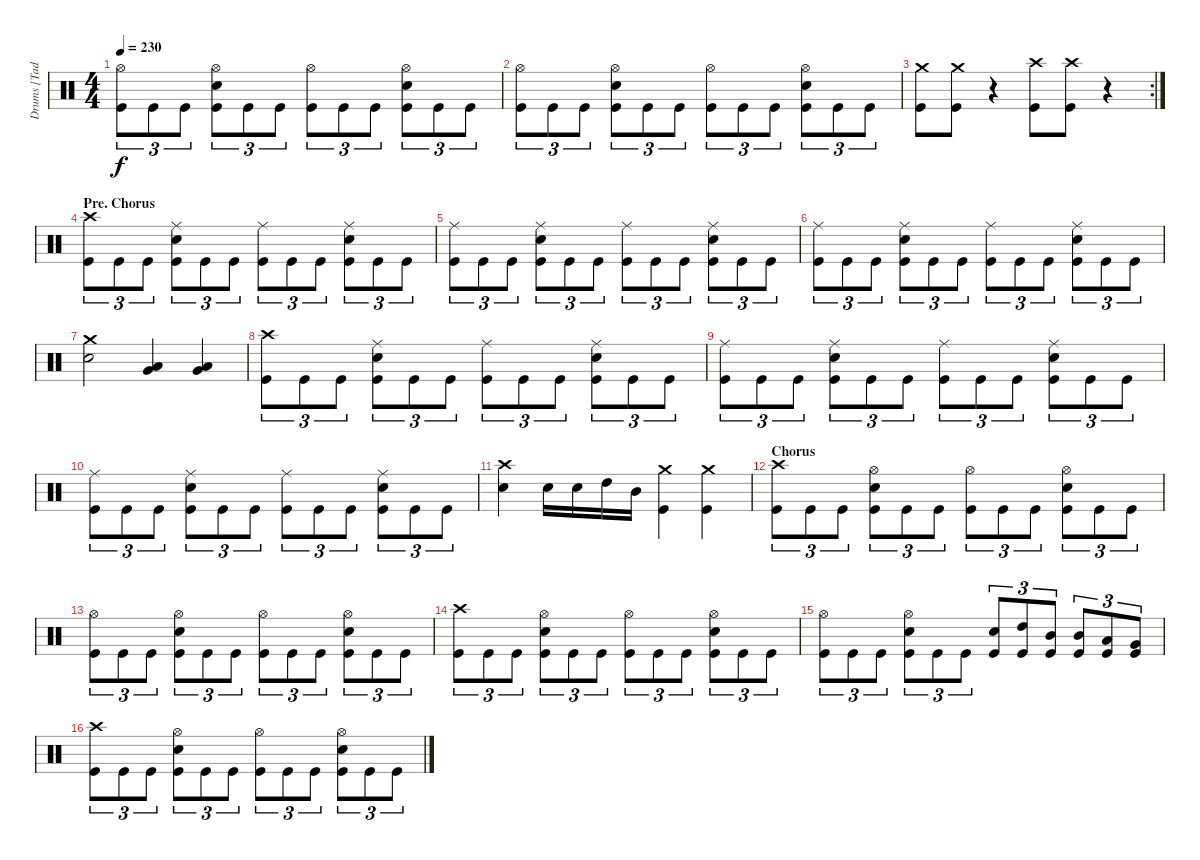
\track ("Drums [Tad Leger]" "Drums [Tad") {instrument percussion}
\staff {score}
\articulation defaults
\ts (4 4)
\tempo 230
\clef neutral
\ks c
("Hi-Hat (open)" "Kick (hit)").8{tu (3 2) dy f} "Kick (hit)".8{tu (3 2)} "Kick (hit)".8{tu (3 2)} ("Hi-Hat (open)" "Electric Snare (hit)" "Kick (hit)").8{tu (3 2)} "Kick (hit)".8{tu (3 2)} "Kick (hit)".8{tu (3 2)} ("Hi-Hat (open)" "Kick (hit)").8{tu (3 2)} "Kick (hit)".8{tu (3 2)} "Kick (hit)".8{tu (3 2)} ("Hi-Hat (open)" "Electric Snare (hit)" "Kick (hit)").8{tu (3 2)} "Kick (hit)".8{tu (3 2)} "Kick (hit)".8{tu (3 2)} |
("Hi-Hat (open)" "Kick (hit)").8{tu (3 2)} "Kick (hit)".8{tu (3 2)} "Kick (hit)".8{tu (3 2)} ("Hi-Hat (open)" "Electric Snare (hit)" "Kick (hit)").8{tu (3 2)} "Kick (hit)".8{tu (3 2)} "Kick (hit)".8{tu (3 2)} ("Hi-Hat (open)" "Kick (hit)").8{tu (3 2)} "Kick (hit)".8{tu (3 2)} "Kick (hit)".8{tu (3 2)} ("Hi-Hat (open)" "Electric Snare (hit)" "Kick (hit)").8{tu (3 2)} "Kick (hit)".8{tu (3 2)} "Kick (hit)".8{tu (3 2)} |
\rc 2
("Crash medium (hit)" "Kick (hit)").8 ("Crash medium (hit)" "Kick (hit)").8 r.4 ("Crash high (hit)" "Kick (hit)").8 ("Crash high (hit)" "Kick (hit)").8 r.4 |
\section ("" "Pre. Chorus")
("Crash high (hit)" "Kick (hit)").8{tu (3 2)} "Kick (hit)".8{tu (3 2)} "Kick (hit)".8{tu (3 2)} ("Ride (middle)" "Electric Snare (hit)" "Kick (hit)").8{tu (3 2)} "Kick (hit)".8{tu (3 2)} "Kick (hit)".8{tu (3 2)} ("Ride (middle)" "Kick (hit)").8{tu (3 2)} "Kick (hit)".8{tu (3 2)} "Kick (hit)".8{tu (3 2)} ("Ride (middle)" "Electric Snare (hit)" "Kick (hit)").8{tu (3 2)} "Kick (hit)".8{tu (3 2)} "Kick (hit)".8{tu (3 2)} |
("Ride (middle)" "Kick (hit)").8{tu (3 2)} "Kick (hit)".8{tu (3 2)} "Kick (hit)".8{tu (3 2)} ("Ride (middle)" "Electric Snare (hit)" "Kick (hit)").8{tu (3 2)} "Kick (hit)".8{tu (3 2)} "Kick (hit)".8{tu (3 2)} ("Ride (middle)" "Kick (hit)").8{tu (3 2)} "Kick (hit)".8{tu (3 2)} "Kick (hit)".8{tu (3 2)} ("Ride (middle)" "Electric Snare (hit)" "Kick (hit)").8{tu (3 2)} "Kick (hit)".8{tu (3 2)} "Kick (hit)".8{tu (3 2)} |
("Ride (middle)" "Kick (hit)").8{tu (3 2)} "Kick (hit)".8{tu (3 2)} "Kick (hit)".8{tu (3 2)} ("Ride (middle)" "Electric Snare (hit)" "Kick (hit)").8{tu (3 2)} "Kick (hit)".8{tu (3 2)} "Kick (hit)".8{tu (3 2)} ("Ride (middle)" "Kick (hit)").8{tu (3 2)} "Kick (hit)".8{tu (3 2)} "Kick (hit)".8{tu (3 2)} ("Ride (middle)" "Electric Snare (hit)" "Kick (hit)").8{tu (3 2)} "Kick (hit)".8{tu (3 2)} "Kick (hit)".8{tu (3 2)} |
("Crash medium (hit)" "Electric Snare (hit)").2 ("Very Low Tom (hit)" "Low Tom (hit)").4 ("Very Low Tom (hit)" "Low Tom (hit)").4 |
("Crash high (hit)" "Kick (hit)").8{tu (3 2)} "Kick (hit)".8{tu (3 2)} "Kick (hit)".8{tu (3 2)} ("Ride (middle)" "Electric Snare (hit)" "Kick (hit)").8{tu (3 2)} "Kick (hit)".8{tu (3 2)} "Kick (hit)".8{tu (3 2)} ("Ride (middle)" "Kick (hit)").8{tu (3 2)} "Kick (hit)".8{tu (3 2)} "Kick (hit)".8{tu (3 2)} ("Ride (middle)" "Electric Snare (hit)" "Kick (hit)").8{tu (3 2)} "Kick (hit)".8{tu (3 2)} "Kick (hit)".8{tu (3 2)} |
("Ride (middle)" "Kick (hit)").8{tu (3 2)} "Kick (hit)".8{tu (3 2)} "Kick (hit)".8{tu (3 2)} ("Ride (middle)" "Electric Snare (hit)" "Kick (hit)").8{tu (3 2)} "Kick (hit)".8{tu (3 2)} "Kick (hit)".8{tu (3 2)} ("Ride (middle)" "Kick (hit)").8{tu (3 2)} "Kick (hit)".8{tu (3 2)} "Kick (hit)".8{tu (3 2)} ("Ride (middle)" "Electric Snare (hit)" "Kick (hit)").8{tu (3 2)} "Kick (hit)".8{tu (3 2)} "Kick (hit)".8{tu (3 2)} |
("Ride (middle)" "Kick (hit)").8{tu (3 2)} "Kick (hit)".8{tu (3 2)} "Kick (hit)".8{tu (3 2)} ("Ride (middle)" "Electric Snare (hit)" "Kick (hit)").8{tu (3 2)} "Kick (hit)".8{tu (3 2)} "Kick (hit)".8{tu (3 2)} ("Ride (middle)" "Kick (hit)").8{tu (3 2)} "Kick (hit)".8{tu (3 2)} "Kick (hit)".8{tu (3 2)} ("Ride (middle)" "Electric Snare (hit)" "Kick (hit)").8{tu (3 2)} "Kick (hit)".8{tu (3 2)} "Kick (hit)".8{tu (3 2)} |
("Crash high (hit)" "Electric Snare (hit)").4 "Electric Snare (hit)".16 "Electric Snare (hit)".16 "High Tom (hit)".16 "Mid Tom (hit)".16 ("Crash medium (hit)" "Kick (hit)").4 ("Crash medium (hit)" "Kick (hit)").4 |
\section ("" "Chorus")
("Crash high (hit)" "Kick (hit)").8{tu (3 2)} "Kick (hit)".8{tu (3 2)} "Kick (hit)".8{tu (3 2)} ("Hi-Hat (open)" "Electric Snare (hit)" "Kick (hit)").8{tu (3 2)} "Kick (hit)".8{tu (3 2)} "Kick (hit)".8{tu (3 2)} ("Hi-Hat (open)" "Kick (hit)").8{tu (3 2)} "Kick (hit)".8{tu (3 2)} "Kick (hit)".8{tu (3 2)} ("Hi-Hat (open)" "Electric Snare (hit)" "Kick (hit)").8{tu (3 2)} "Kick (hit)".8{tu (3 2)} "Kick (hit)".8{tu (3 2)} |
("Hi-Hat (open)" "Kick (hit)").8{tu (3 2)} "Kick (hit)".8{tu (3 2)} "Kick (hit)".8{tu (3 2)} ("Hi-Hat (open)" "Electric Snare (hit)" "Kick (hit)").8{tu (3 2)} "Kick (hit)".8{tu (3 2)} "Kick (hit)".8{tu (3 2)} ("Hi-Hat (open)" "Kick (hit)").8{tu (3 2)} "Kick (hit)".8{tu (3 2)} "Kick (hit)".8{tu (3 2)} ("Hi-Hat (open)" "Electric Snare (hit)" "Kick (hit)").8{tu (3 2)} "Kick (hit)".8{tu (3 2)} "Kick (hit)".8{tu (3 2)} |
("Crash high (hit)" "Kick (hit)").8{tu (3 2)} "Kick (hit)".8{tu (3 2)} "Kick (hit)".8{tu (3 2)} ("Hi-Hat (open)" "Electric Snare (hit)" "Kick (hit)").8{tu (3 2)} "Kick (hit)".8{tu (3 2)} "Kick (hit)".8{tu (3 2)} ("Hi-Hat (open)" "Kick (hit)").8{tu (3 2)} "Kick (hit)".8{tu (3 2)} "Kick (hit)".8{tu (3 2)} ("Hi-Hat (open)" "Electric Snare (hit)" "Kick (hit)").8{tu (3 2)} "Kick (hit)".8{tu (3 2)} "Kick (hit)".8{tu (3 2)} |
("Hi-Hat (open)" "Kick (hit)").8{tu (3 2)} "Kick (hit)".8{tu (3 2)} "Kick (hit)".8{tu (3 2)} ("Hi-Hat (open)" "Electric Snare (hit)" "Kick (hit)").8{tu (3 2)} "Kick (hit)".8{tu (3 2)} "Kick (hit)".8{tu (3 2)} ("Electric Snare (hit)" "Kick (hit)").8{tu (3 2)} ("High Tom (hit)" "Kick (hit)").8{tu (3 2)} ("Mid Tom (hit)" "Kick (hit)").8{tu (3 2)} ("Mid Tom (hit)" "Kick (hit)").8{tu (3 2)} ("Low Tom (hit)" "Kick (hit)").8{tu (3 2)} ("Very Low Tom (hit)" "Kick (hit)").8{tu (3 2)} |
("Crash high (hit)" "Kick (hit)").8{tu (3 2)} "Kick (hit)".8{tu (3 2)} "Kick (hit)".8{tu (3 2)} ("Hi-Hat (open)" "Electric Snare (hit)" "Kick (hit)").8{tu (3 2)} "Kick (hit)".8{tu (3 2)} "Kick (hit)".8{tu (3 2)} ("Hi-Hat (open)" "Kick (hit)").8{tu (3 2)} "Kick (hit)".8{tu (3 2)} "Kick (hit)".8{tu (3 2)} ("Hi-Hat (open)" "Electric Snare (hit)" "Kick (hit)").8{tu (3 2)} "Kick (hit)".8{tu (3 2)} "Kick (hit)".8{tu (3 2)}
